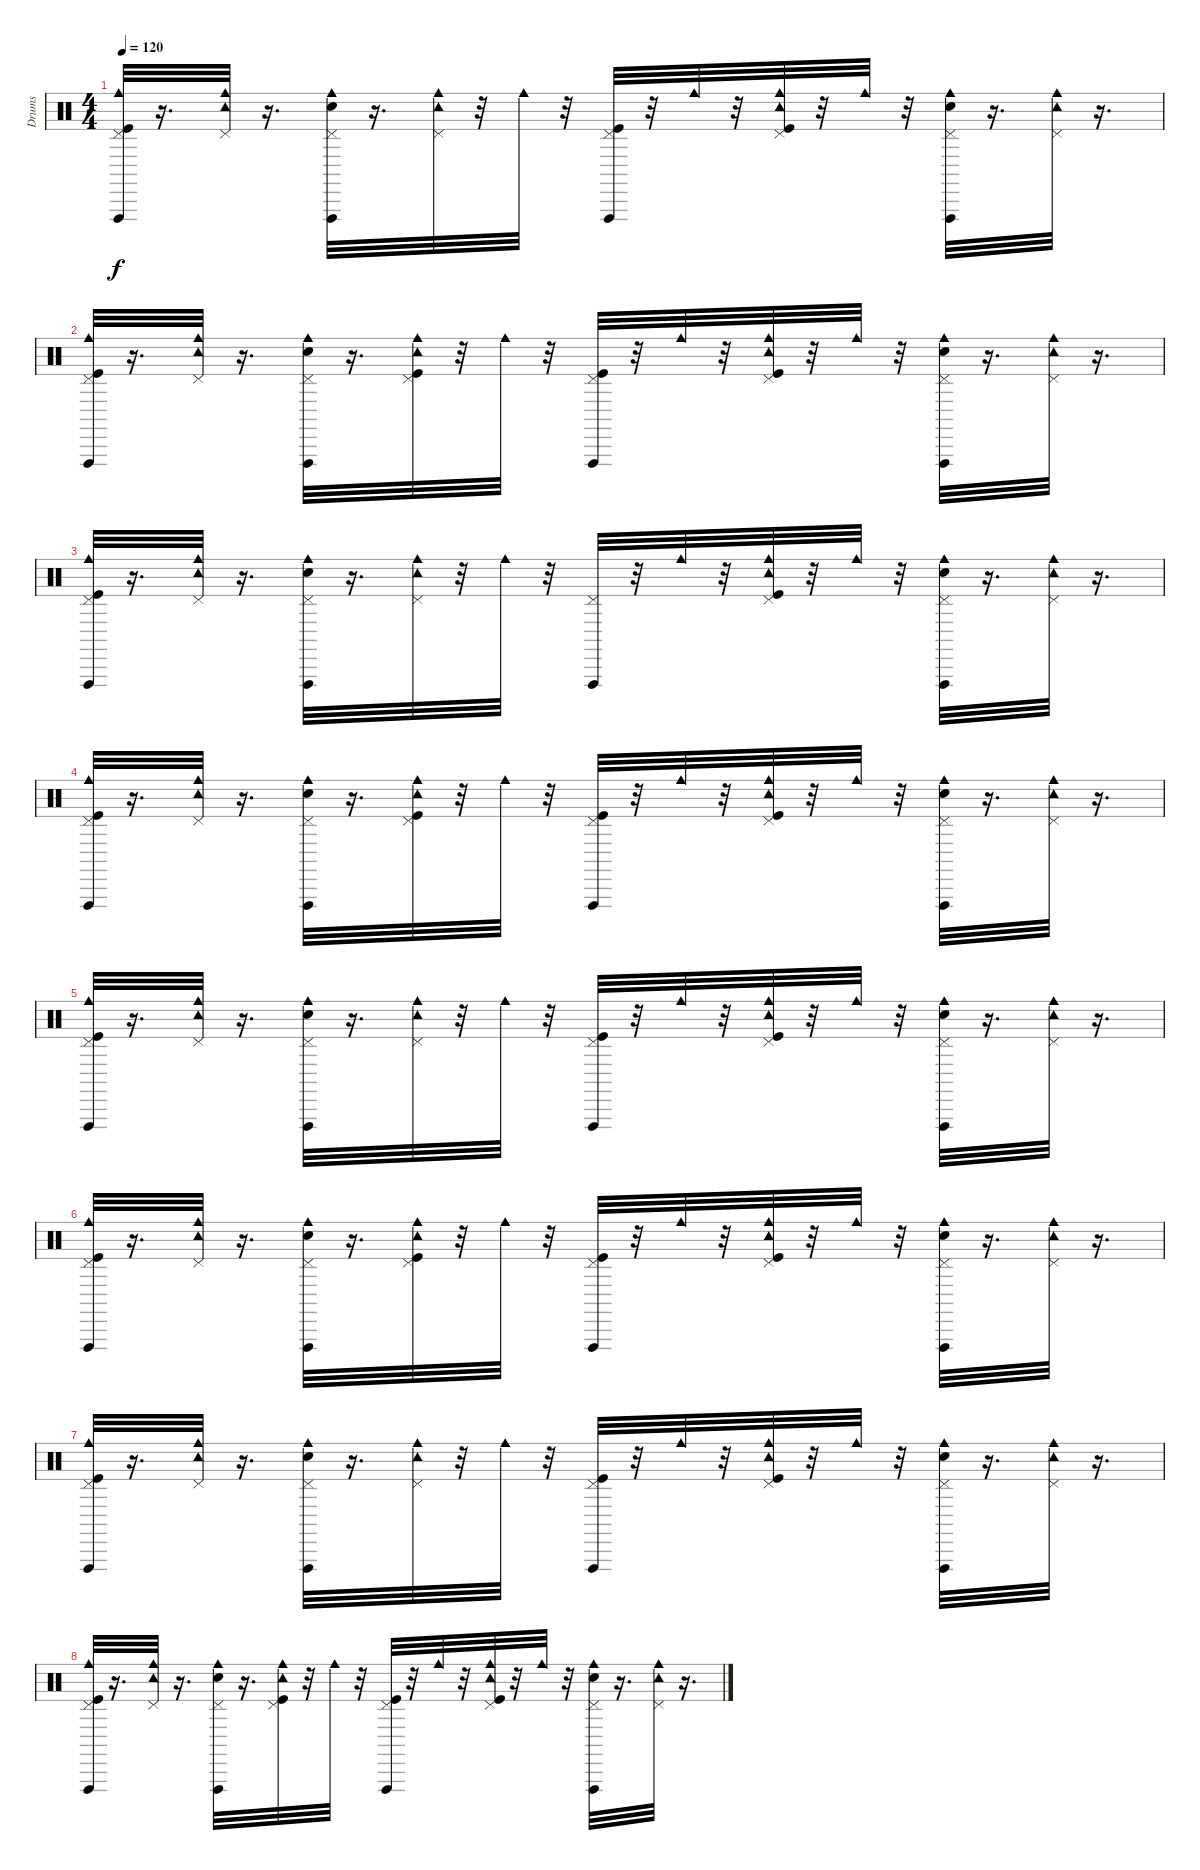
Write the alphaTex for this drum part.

\track ("Drums" "Drums") {instrument percussion}
\staff {score}
\articulation defaults
\ts (4 4)
\tempo 120
\clef neutral
\ks c
("Cowbell medium (hit)" "Pedal Hi-Hat (hit)" "Kick (hit)" "Vibraslap (hit)").32{dy f} r.16{d} ("Pedal Hi-Hat (hit)" "Cowbell medium (hit)" "Tambourine (hit)").32 r.16{d} ("Pedal Hi-Hat (hit)" "Cowbell medium (hit)" "Snare (hit) 2" "Vibraslap (hit)").32 r.16{d} ("Cowbell medium (hit)" "Pedal Hi-Hat (hit)" "Tambourine (hit)").32 r.32 "Cowbell medium (hit)".32 r.32 ("Kick (hit)" "Pedal Hi-Hat (hit)" "Vibraslap (hit)").32 r.32 "Cowbell medium (hit)".32 r.32 ("Tambourine (hit)" "Pedal Hi-Hat (hit)" "Kick (hit)" "Cowbell medium (hit)").32 r.32 "Cowbell medium (hit)".32 r.32 ("Snare (hit) 2" "Pedal Hi-Hat (hit)" "Cowbell medium (hit)" "Vibraslap (hit)").32 r.16{d} ("Pedal Hi-Hat (hit)" "Tambourine (hit)" "Cowbell medium (hit)").32 r.16{d} |
("Vibraslap (hit)" "Cowbell medium (hit)" "Pedal Hi-Hat (hit)" "Kick (hit)").32 r.16{d} ("Tambourine (hit)" "Pedal Hi-Hat (hit)" "Cowbell medium (hit)").32 r.16{d} ("Pedal Hi-Hat (hit)" "Snare (hit) 2" "Cowbell medium (hit)" "Vibraslap (hit)").32 r.16{d} ("Tambourine (hit)" "Pedal Hi-Hat (hit)" "Kick (hit)" "Cowbell medium (hit)").32 r.32 "Cowbell medium (hit)".32 r.32 ("Pedal Hi-Hat (hit)" "Vibraslap (hit)" "Kick (hit)").32 r.32 "Cowbell medium (hit)".32 r.32 ("Tambourine (hit)" "Pedal Hi-Hat (hit)" "Cowbell medium (hit)" "Kick (hit)").32 r.32 "Cowbell medium (hit)".32 r.32 ("Vibraslap (hit)" "Pedal Hi-Hat (hit)" "Cowbell medium (hit)" "Snare (hit) 2").32 r.16{d} ("Tambourine (hit)" "Cowbell medium (hit)" "Pedal Hi-Hat (hit)").32 r.16{d} |
("Vibraslap (hit)" "Cowbell medium (hit)" "Pedal Hi-Hat (hit)" "Kick (hit)").32 r.16{d} ("Pedal Hi-Hat (hit)" "Tambourine (hit)" "Cowbell medium (hit)").32 r.16{d} ("Snare (hit) 2" "Cowbell medium (hit)" "Vibraslap (hit)" "Pedal Hi-Hat (hit)").32 r.16{d} ("Cowbell medium (hit)" "Pedal Hi-Hat (hit)" "Tambourine (hit)").32 r.32 "Cowbell medium (hit)".32 r.32 ("Vibraslap (hit)" "Pedal Hi-Hat (hit)").32 r.32 "Cowbell medium (hit)".32 r.32 ("Tambourine (hit)" "Cowbell medium (hit)" "Pedal Hi-Hat (hit)" "Kick (hit)").32 r.32 "Cowbell medium (hit)".32 r.32 ("Cowbell medium (hit)" "Vibraslap (hit)" "Snare (hit) 2" "Pedal Hi-Hat (hit)").32 r.16{d} ("Pedal Hi-Hat (hit)" "Cowbell medium (hit)" "Tambourine (hit)").32 r.16{d} |
("Kick (hit)" "Cowbell medium (hit)" "Pedal Hi-Hat (hit)" "Vibraslap (hit)").32 r.16{d} ("Tambourine (hit)" "Pedal Hi-Hat (hit)" "Cowbell medium (hit)").32 r.16{d} ("Pedal Hi-Hat (hit)" "Snare (hit) 2" "Cowbell medium (hit)" "Vibraslap (hit)").32 r.16{d} ("Pedal Hi-Hat (hit)" "Tambourine (hit)" "Kick (hit)" "Cowbell medium (hit)").32 r.32 "Cowbell medium (hit)".32 r.32 ("Pedal Hi-Hat (hit)" "Kick (hit)" "Vibraslap (hit)").32 r.32 "Cowbell medium (hit)".32 r.32 ("Tambourine (hit)" "Pedal Hi-Hat (hit)" "Cowbell medium (hit)" "Kick (hit)").32 r.32 "Cowbell medium (hit)".32 r.32 ("Cowbell medium (hit)" "Pedal Hi-Hat (hit)" "Snare (hit) 2" "Vibraslap (hit)").32 r.16{d} ("Pedal Hi-Hat (hit)" "Tambourine (hit)" "Cowbell medium (hit)").32 r.16{d} |
("Cowbell medium (hit)" "Pedal Hi-Hat (hit)" "Kick (hit)" "Vibraslap (hit)").32 r.16{d} ("Pedal Hi-Hat (hit)" "Cowbell medium (hit)" "Tambourine (hit)").32 r.16{d} ("Pedal Hi-Hat (hit)" "Cowbell medium (hit)" "Snare (hit) 2" "Vibraslap (hit)").32 r.16{d} ("Cowbell medium (hit)" "Pedal Hi-Hat (hit)" "Tambourine (hit)").32 r.32 "Cowbell medium (hit)".32 r.32 ("Kick (hit)" "Pedal Hi-Hat (hit)" "Vibraslap (hit)").32 r.32 "Cowbell medium (hit)".32 r.32 ("Tambourine (hit)" "Pedal Hi-Hat (hit)" "Kick (hit)" "Cowbell medium (hit)").32 r.32 "Cowbell medium (hit)".32 r.32 ("Snare (hit) 2" "Pedal Hi-Hat (hit)" "Cowbell medium (hit)" "Vibraslap (hit)").32 r.16{d} ("Pedal Hi-Hat (hit)" "Tambourine (hit)" "Cowbell medium (hit)").32 r.16{d} |
("Kick (hit)" "Pedal Hi-Hat (hit)" "Vibraslap (hit)" "Cowbell medium (hit)").32 r.16{d} ("Cowbell medium (hit)" "Pedal Hi-Hat (hit)" "Tambourine (hit)").32 r.16{d} ("Snare (hit) 2" "Pedal Hi-Hat (hit)" "Cowbell medium (hit)" "Vibraslap (hit)").32 r.16{d} ("Kick (hit)" "Cowbell medium (hit)" "Pedal Hi-Hat (hit)" "Tambourine (hit)").32 r.32 "Cowbell medium (hit)".32 r.32 ("Kick (hit)" "Vibraslap (hit)" "Pedal Hi-Hat (hit)").32 r.32 "Cowbell medium (hit)".32 r.32 ("Kick (hit)" "Pedal Hi-Hat (hit)" "Tambourine (hit)" "Cowbell medium (hit)").32 r.32 "Cowbell medium (hit)".32 r.32 ("Snare (hit) 2" "Pedal Hi-Hat (hit)" "Cowbell medium (hit)" "Vibraslap (hit)").32 r.16{d} ("Pedal Hi-Hat (hit)" "Cowbell medium (hit)" "Tambourine (hit)").32 r.16{d} |
("Kick (hit)" "Vibraslap (hit)" "Cowbell medium (hit)" "Pedal Hi-Hat (hit)").32 r.16{d} ("Tambourine (hit)" "Pedal Hi-Hat (hit)" "Cowbell medium (hit)").32 r.16{d} ("Snare (hit) 2" "Pedal Hi-Hat (hit)" "Vibraslap (hit)" "Cowbell medium (hit)").32 r.16{d} ("Pedal Hi-Hat (hit)" "Tambourine (hit)" "Cowbell medium (hit)").32 r.32 "Cowbell medium (hit)".32 r.32 ("Kick (hit)" "Pedal Hi-Hat (hit)" "Vibraslap (hit)").32 r.32 "Cowbell medium (hit)".32 r.32 ("Kick (hit)" "Cowbell medium (hit)" "Tambourine (hit)" "Pedal Hi-Hat (hit)").32 r.32 "Cowbell medium (hit)".32 r.32 ("Snare (hit) 2" "Vibraslap (hit)" "Cowbell medium (hit)" "Pedal Hi-Hat (hit)").32 r.16{d} ("Pedal Hi-Hat (hit)" "Tambourine (hit)" "Cowbell medium (hit)").32 r.16{d} |
("Kick (hit)" "Pedal Hi-Hat (hit)" "Vibraslap (hit)" "Cowbell medium (hit)").32 r.16{d} ("Cowbell medium (hit)" "Pedal Hi-Hat (hit)" "Tambourine (hit)").32 r.16{d} ("Snare (hit) 2" "Pedal Hi-Hat (hit)" "Cowbell medium (hit)" "Vibraslap (hit)").32 r.16{d} ("Kick (hit)" "Cowbell medium (hit)" "Pedal Hi-Hat (hit)" "Tambourine (hit)").32 r.32 "Cowbell medium (hit)".32 r.32 ("Kick (hit)" "Vibraslap (hit)" "Pedal Hi-Hat (hit)").32 r.32 "Cowbell medium (hit)".32 r.32 ("Kick (hit)" "Pedal Hi-Hat (hit)" "Tambourine (hit)" "Cowbell medium (hit)").32 r.32 "Cowbell medium (hit)".32 r.32 ("Snare (hit) 2" "Pedal Hi-Hat (hit)" "Cowbell medium (hit)" "Vibraslap (hit)").32 r.16{d} ("Pedal Hi-Hat (hit)" "Cowbell medium (hit)" "Tambourine (hit)").32 r.16{d}
